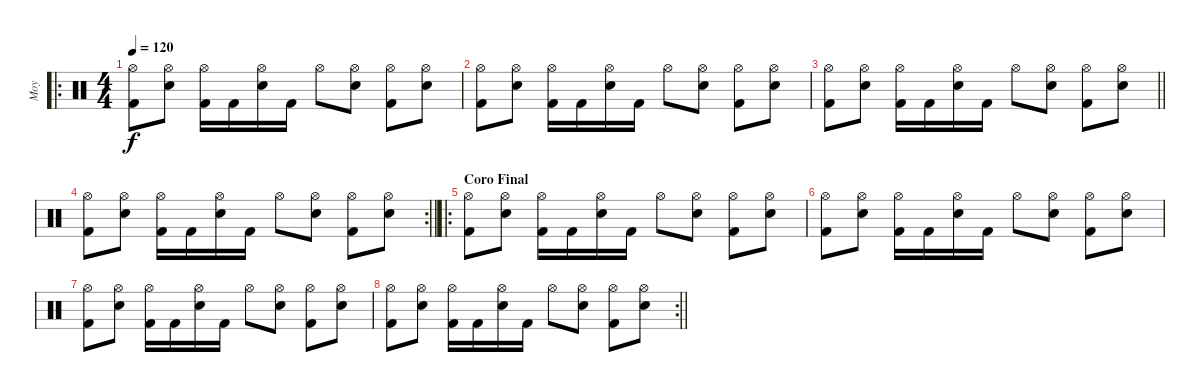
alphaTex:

\track ("Moy" "Moy") {instrument percussion}
\staff {score}
\articulation defaults
\ro
\ts (4 4)
\section ("" "")
\tempo 120
\clef neutral
\ks c
("Hi-Hat (open)" "Kick (hit) 2").8{dy f} ("Hi-Hat (open)" "Electric Snare (hit)").8 ("Hi-Hat (open)" "Kick (hit) 2").16 "Kick (hit) 2".16 ("Hi-Hat (open)" "Electric Snare (hit)").16 "Kick (hit) 2".16 "Hi-Hat (open)".8 ("Hi-Hat (open)" "Electric Snare (hit)").8 ("Hi-Hat (open)" "Kick (hit) 2").8 ("Hi-Hat (open)" "Electric Snare (hit)").8 |
("Hi-Hat (open)" "Kick (hit) 2").8 ("Hi-Hat (open)" "Electric Snare (hit)").8 ("Hi-Hat (open)" "Kick (hit) 2").16 "Kick (hit) 2".16 ("Hi-Hat (open)" "Electric Snare (hit)").16 "Kick (hit) 2".16 "Hi-Hat (open)".8 ("Hi-Hat (open)" "Electric Snare (hit)").8 ("Hi-Hat (open)" "Kick (hit) 2").8 ("Hi-Hat (open)" "Electric Snare (hit)").8 |
\barLineRight lightlight
("Hi-Hat (open)" "Kick (hit) 2").8 ("Hi-Hat (open)" "Electric Snare (hit)").8 ("Hi-Hat (open)" "Kick (hit) 2").16 "Kick (hit) 2".16 ("Hi-Hat (open)" "Electric Snare (hit)").16 "Kick (hit) 2".16 "Hi-Hat (open)".8 ("Hi-Hat (open)" "Electric Snare (hit)").8 ("Hi-Hat (open)" "Kick (hit) 2").8 ("Hi-Hat (open)" "Electric Snare (hit)").8 |
\rc 2
\barLineRight lightlight
("Hi-Hat (open)" "Kick (hit) 2").8 ("Hi-Hat (open)" "Electric Snare (hit)").8 ("Hi-Hat (open)" "Kick (hit) 2").16 "Kick (hit) 2".16 ("Hi-Hat (open)" "Electric Snare (hit)").16 "Kick (hit) 2".16 "Hi-Hat (open)".8 ("Hi-Hat (open)" "Electric Snare (hit)").8 ("Hi-Hat (open)" "Kick (hit) 2").8 ("Hi-Hat (open)" "Electric Snare (hit)").8 |
\ro
\section ("" "Coro Final")
("Hi-Hat (open)" "Kick (hit) 2").8 ("Hi-Hat (open)" "Electric Snare (hit)").8 ("Hi-Hat (open)" "Kick (hit) 2").16 "Kick (hit) 2".16 ("Hi-Hat (open)" "Electric Snare (hit)").16 "Kick (hit) 2".16 "Hi-Hat (open)".8 ("Hi-Hat (open)" "Electric Snare (hit)").8 ("Hi-Hat (open)" "Kick (hit) 2").8 ("Hi-Hat (open)" "Electric Snare (hit)").8 |
("Hi-Hat (open)" "Kick (hit) 2").8 ("Hi-Hat (open)" "Electric Snare (hit)").8 ("Hi-Hat (open)" "Kick (hit) 2").16 "Kick (hit) 2".16 ("Hi-Hat (open)" "Electric Snare (hit)").16 "Kick (hit) 2".16 "Hi-Hat (open)".8 ("Hi-Hat (open)" "Electric Snare (hit)").8 ("Hi-Hat (open)" "Kick (hit) 2").8 ("Hi-Hat (open)" "Electric Snare (hit)").8 |
("Hi-Hat (open)" "Kick (hit) 2").8 ("Hi-Hat (open)" "Electric Snare (hit)").8 ("Hi-Hat (open)" "Kick (hit) 2").16 "Kick (hit) 2".16 ("Hi-Hat (open)" "Electric Snare (hit)").16 "Kick (hit) 2".16 "Hi-Hat (open)".8 ("Hi-Hat (open)" "Electric Snare (hit)").8 ("Hi-Hat (open)" "Kick (hit) 2").8 ("Hi-Hat (open)" "Electric Snare (hit)").8 |
\rc 2
\barLineRight lightlight
("Hi-Hat (open)" "Kick (hit) 2").8 ("Hi-Hat (open)" "Electric Snare (hit)").8 ("Hi-Hat (open)" "Kick (hit) 2").16 "Kick (hit) 2".16 ("Hi-Hat (open)" "Electric Snare (hit)").16 "Kick (hit) 2".16 "Hi-Hat (open)".8 ("Hi-Hat (open)" "Electric Snare (hit)").8 ("Hi-Hat (open)" "Kick (hit) 2").8 ("Hi-Hat (open)" "Electric Snare (hit)").8
